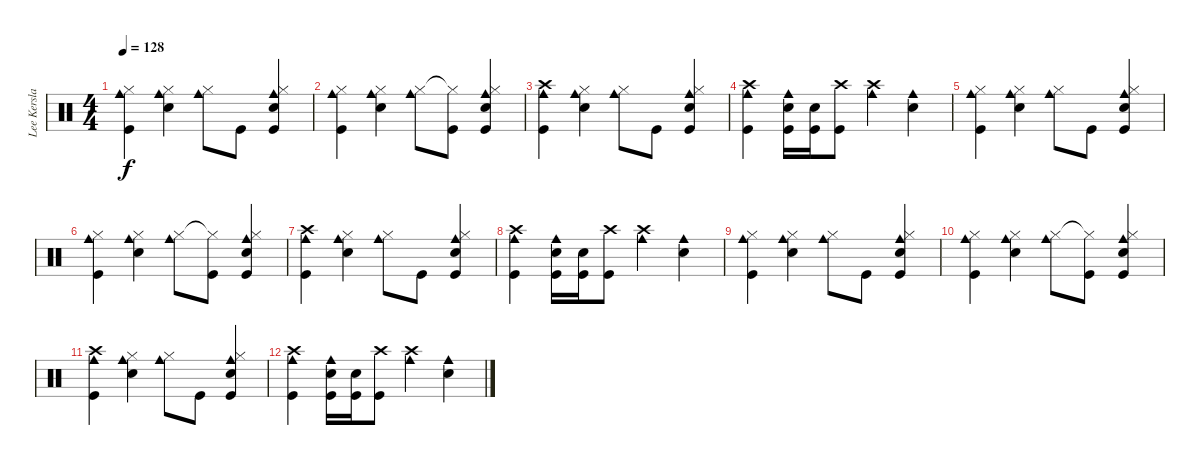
\track ("Lee Kerslake (Drums)" "Lee Kersla") {instrument percussion}
\staff {score}
\articulation defaults
\ts (4 4)
\tempo 128
\clef neutral
\ks c
("Kick (hit)" "Hi-Hat (closed)" "Cowbell medium (hit)").4{dy f} ("Hi-Hat (closed)" "Electric Snare (hit)" "Cowbell medium (hit)").4 ("Hi-Hat (closed)" "Cowbell medium (hit)").8 "Kick (hit)".8 ("Kick (hit)" "Hi-Hat (closed)" "Electric Snare (hit)" "Cowbell medium (hit)").4 |
("Kick (hit)" "Hi-Hat (closed)" "Cowbell medium (hit)").4 ("Hi-Hat (closed)" "Electric Snare (hit)" "Cowbell medium (hit)").4 ("Hi-Hat (closed)" "Cowbell medium (hit)").8 ("Hi-Hat (closed)"{t} "Kick (hit)").8 ("Kick (hit)" "Hi-Hat (closed)" "Electric Snare (hit)" "Cowbell medium (hit)").4 |
("Kick (hit)" "Crash high (hit)" "Cowbell medium (hit)").4 ("Hi-Hat (closed)" "Electric Snare (hit)" "Cowbell medium (hit)").4 ("Hi-Hat (closed)" "Cowbell medium (hit)").8 "Kick (hit)".8 ("Kick (hit)" "Electric Snare (hit)" "Hi-Hat (closed)" "Cowbell medium (hit)").4 |
("Crash high (hit)" "Kick (hit)" "Cowbell medium (hit)").4 ("Electric Snare (hit)" "Kick (hit)" "Cowbell medium (hit)").16 ("Electric Snare (hit)" "Kick (hit)").16 ("Kick (hit)" "Crash high (hit)").8 ("Crash high (hit)" "Cowbell medium (hit)").4 ("Electric Snare (hit)" "Cowbell medium (hit)").4 |
("Kick (hit)" "Hi-Hat (closed)" "Cowbell medium (hit)").4 ("Hi-Hat (closed)" "Electric Snare (hit)" "Cowbell medium (hit)").4 ("Hi-Hat (closed)" "Cowbell medium (hit)").8 "Kick (hit)".8 ("Kick (hit)" "Hi-Hat (closed)" "Electric Snare (hit)" "Cowbell medium (hit)").4 |
("Kick (hit)" "Hi-Hat (closed)" "Cowbell medium (hit)").4 ("Hi-Hat (closed)" "Electric Snare (hit)" "Cowbell medium (hit)").4 ("Hi-Hat (closed)" "Cowbell medium (hit)").8 ("Hi-Hat (closed)"{t} "Kick (hit)").8 ("Kick (hit)" "Hi-Hat (closed)" "Electric Snare (hit)" "Cowbell medium (hit)").4 |
("Kick (hit)" "Crash high (hit)" "Cowbell medium (hit)").4 ("Hi-Hat (closed)" "Electric Snare (hit)" "Cowbell medium (hit)").4 ("Hi-Hat (closed)" "Cowbell medium (hit)").8 "Kick (hit)".8 ("Kick (hit)" "Electric Snare (hit)" "Hi-Hat (closed)" "Cowbell medium (hit)").4 |
("Crash high (hit)" "Kick (hit)" "Cowbell medium (hit)").4 ("Electric Snare (hit)" "Kick (hit)" "Cowbell medium (hit)").16 ("Electric Snare (hit)" "Kick (hit)").16 ("Kick (hit)" "Crash high (hit)").8 ("Crash high (hit)" "Cowbell medium (hit)").4 ("Electric Snare (hit)" "Cowbell medium (hit)").4 |
("Kick (hit)" "Hi-Hat (closed)" "Cowbell medium (hit)").4 ("Hi-Hat (closed)" "Electric Snare (hit)" "Cowbell medium (hit)").4 ("Hi-Hat (closed)" "Cowbell medium (hit)").8 "Kick (hit)".8 ("Kick (hit)" "Hi-Hat (closed)" "Electric Snare (hit)" "Cowbell medium (hit)").4 |
("Kick (hit)" "Hi-Hat (closed)" "Cowbell medium (hit)").4 ("Hi-Hat (closed)" "Electric Snare (hit)" "Cowbell medium (hit)").4 ("Hi-Hat (closed)" "Cowbell medium (hit)").8 ("Hi-Hat (closed)"{t} "Kick (hit)").8 ("Kick (hit)" "Hi-Hat (closed)" "Electric Snare (hit)" "Cowbell medium (hit)").4 |
("Kick (hit)" "Crash high (hit)" "Cowbell medium (hit)").4 ("Hi-Hat (closed)" "Electric Snare (hit)" "Cowbell medium (hit)").4 ("Hi-Hat (closed)" "Cowbell medium (hit)").8 "Kick (hit)".8 ("Kick (hit)" "Electric Snare (hit)" "Hi-Hat (closed)" "Cowbell medium (hit)").4 |
("Crash high (hit)" "Kick (hit)" "Cowbell medium (hit)").4 ("Electric Snare (hit)" "Kick (hit)" "Cowbell medium (hit)").16 ("Electric Snare (hit)" "Kick (hit)").16 ("Kick (hit)" "Crash high (hit)").8 ("Crash high (hit)" "Cowbell medium (hit)").4 ("Electric Snare (hit)" "Cowbell medium (hit)").4
